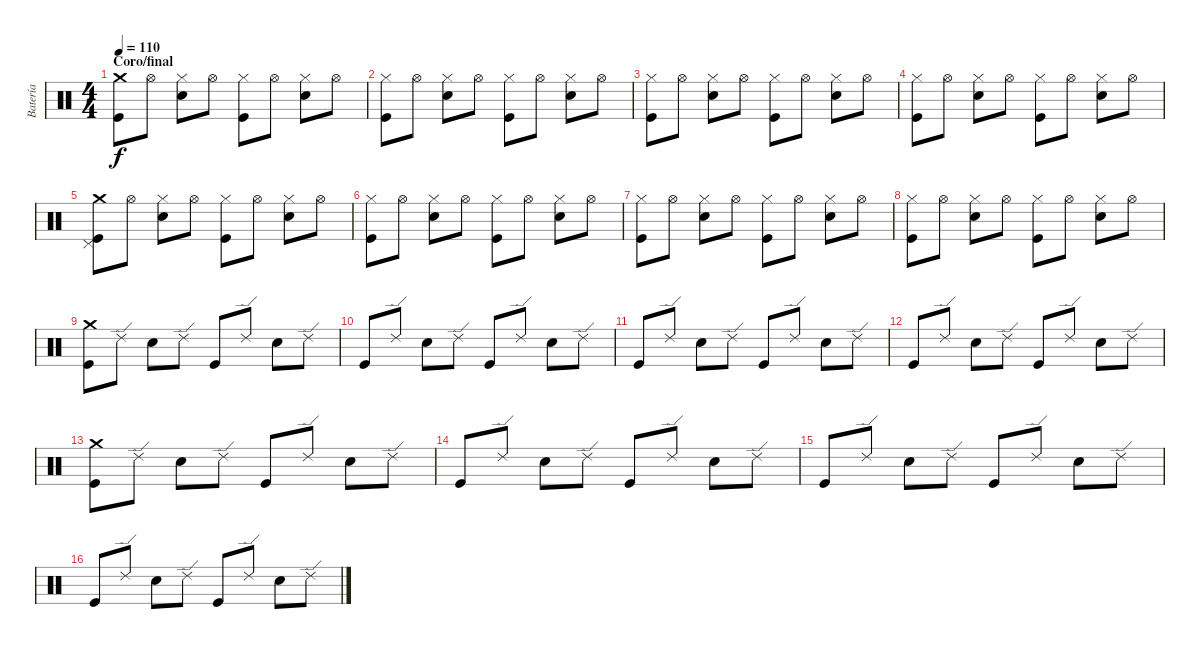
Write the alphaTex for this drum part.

\track ("Batería" "Batería") {instrument percussion}
\staff {score}
\articulation defaults
\ts (4 4)
\section ("" "Coro/final")
\tempo 110
\clef neutral
\ks c
("Crash medium (hit)" "Kick (hit)").8{dy f} "Hi-Hat (open)".8 ("Hi-Hat (closed)" "Snare (hit) 2").8 "Hi-Hat (open)".8 ("Hi-Hat (closed)" "Kick (hit)").8 "Hi-Hat (open)".8 ("Hi-Hat (closed)" "Snare (hit) 2").8 "Hi-Hat (open)".8 |
("Hi-Hat (closed)" "Kick (hit)").8 "Hi-Hat (open)".8 ("Hi-Hat (closed)" "Snare (hit) 2").8 "Hi-Hat (open)".8 ("Hi-Hat (closed)" "Kick (hit)").8 "Hi-Hat (open)".8 ("Hi-Hat (closed)" "Snare (hit) 2").8 "Hi-Hat (open)".8 |
("Hi-Hat (closed)" "Kick (hit)").8 "Hi-Hat (open)".8 ("Hi-Hat (closed)" "Snare (hit) 2").8 "Hi-Hat (open)".8 ("Hi-Hat (closed)" "Kick (hit)").8 "Hi-Hat (open)".8 ("Hi-Hat (closed)" "Snare (hit) 2").8 "Hi-Hat (open)".8 |
("Hi-Hat (closed)" "Kick (hit)").8 "Hi-Hat (open)".8 ("Hi-Hat (closed)" "Snare (hit) 2").8 "Hi-Hat (open)".8 ("Hi-Hat (closed)" "Kick (hit)").8 "Hi-Hat (open)".8 ("Hi-Hat (closed)" "Snare (hit) 2").8 "Hi-Hat (open)".8 |
("Crash medium (hit)" "Pedal Hi-Hat (hit)" "Kick (hit)").8 "Hi-Hat (open)".8 ("Hi-Hat (closed)" "Snare (hit) 2").8 "Hi-Hat (open)".8 ("Hi-Hat (closed)" "Kick (hit)").8 "Hi-Hat (open)".8 ("Hi-Hat (closed)" "Snare (hit) 2").8 "Hi-Hat (open)".8 |
("Hi-Hat (closed)" "Kick (hit)").8 "Hi-Hat (open)".8 ("Hi-Hat (closed)" "Snare (hit) 2").8 "Hi-Hat (open)".8 ("Hi-Hat (closed)" "Kick (hit)").8 "Hi-Hat (open)".8 ("Hi-Hat (closed)" "Snare (hit) 2").8 "Hi-Hat (open)".8 |
("Hi-Hat (closed)" "Kick (hit)").8 "Hi-Hat (open)".8 ("Hi-Hat (closed)" "Snare (hit) 2").8 "Hi-Hat (open)".8 ("Hi-Hat (closed)" "Kick (hit)").8 "Hi-Hat (open)".8 ("Hi-Hat (closed)" "Snare (hit) 2").8 "Hi-Hat (open)".8 |
("Hi-Hat (closed)" "Kick (hit)").8 "Hi-Hat (open)".8 ("Hi-Hat (closed)" "Snare (hit) 2").8 "Hi-Hat (open)".8 ("Hi-Hat (closed)" "Kick (hit)").8 "Hi-Hat (open)".8 ("Hi-Hat (closed)" "Snare (hit) 2").8 "Hi-Hat (open)".8 |
("Crash medium (hit)" "Kick (hit)").8 "Ride (edge) 2".8 "Snare (hit) 2".8 "Ride (edge) 2".8 "Kick (hit)".8 "Ride (edge) 2".8 "Snare (hit) 2".8 "Ride (edge) 2".8 |
"Kick (hit)".8 "Ride (edge) 2".8 "Snare (hit) 2".8 "Ride (edge) 2".8 "Kick (hit)".8 "Ride (edge) 2".8 "Snare (hit) 2".8 "Ride (edge) 2".8 |
"Kick (hit)".8 "Ride (edge) 2".8 "Snare (hit) 2".8 "Ride (edge) 2".8 "Kick (hit)".8 "Ride (edge) 2".8 "Snare (hit) 2".8 "Ride (edge) 2".8 |
"Kick (hit)".8 "Ride (edge) 2".8 "Snare (hit) 2".8 "Ride (edge) 2".8 "Kick (hit)".8 "Ride (edge) 2".8 "Snare (hit) 2".8 "Ride (edge) 2".8 |
("Crash medium (hit)" "Kick (hit)").8 "Ride (edge) 2".8 "Snare (hit) 2".8 "Ride (edge) 2".8 "Kick (hit)".8 "Ride (edge) 2".8 "Snare (hit) 2".8 "Ride (edge) 2".8 |
"Kick (hit)".8 "Ride (edge) 2".8 "Snare (hit) 2".8 "Ride (edge) 2".8 "Kick (hit)".8 "Ride (edge) 2".8 "Snare (hit) 2".8 "Ride (edge) 2".8 |
"Kick (hit)".8 "Ride (edge) 2".8 "Snare (hit) 2".8 "Ride (edge) 2".8 "Kick (hit)".8 "Ride (edge) 2".8 "Snare (hit) 2".8 "Ride (edge) 2".8 |
"Kick (hit)".8 "Ride (edge) 2".8 "Snare (hit) 2".8 "Ride (edge) 2".8 "Kick (hit)".8 "Ride (edge) 2".8 "Snare (hit) 2".8 "Ride (edge) 2".8
